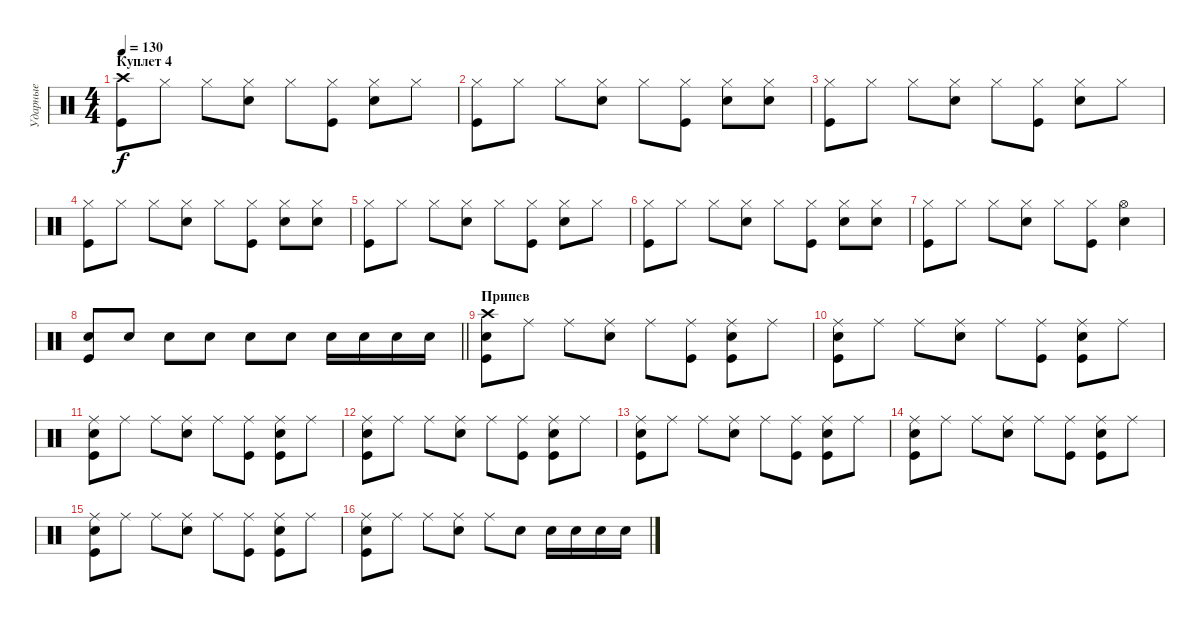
\track ("Ударные" "Ударные") {instrument percussion}
\staff {score}
\articulation defaults
\ts (4 4)
\section ("" "Куплет 4")
\tempo 130
\clef neutral
\ks c
("Crash high (hit)" "Kick (hit)").8{dy f} "Hi-Hat (closed)".8 "Hi-Hat (closed)".8 ("Hi-Hat (closed)" "Snare (hit) 2").8 "Hi-Hat (closed)".8 ("Hi-Hat (closed)" "Kick (hit)").8 ("Hi-Hat (closed)" "Snare (hit) 2").8 "Hi-Hat (closed)".8 |
("Hi-Hat (closed)" "Kick (hit)").8 "Hi-Hat (closed)".8 "Hi-Hat (closed)".8 ("Hi-Hat (closed)" "Snare (hit) 2").8 "Hi-Hat (closed)".8 ("Hi-Hat (closed)" "Kick (hit)").8 ("Hi-Hat (closed)" "Snare (hit) 2").8 ("Hi-Hat (closed)" "Snare (hit) 2").8 |
("Hi-Hat (closed)" "Kick (hit)").8 "Hi-Hat (closed)".8 "Hi-Hat (closed)".8 ("Hi-Hat (closed)" "Snare (hit) 2").8 "Hi-Hat (closed)".8 ("Hi-Hat (closed)" "Kick (hit)").8 ("Hi-Hat (closed)" "Snare (hit) 2").8 "Hi-Hat (closed)".8 |
("Hi-Hat (closed)" "Kick (hit)").8 "Hi-Hat (closed)".8 "Hi-Hat (closed)".8 ("Hi-Hat (closed)" "Snare (hit) 2").8 "Hi-Hat (closed)".8 ("Hi-Hat (closed)" "Kick (hit)").8 ("Hi-Hat (closed)" "Snare (hit) 2").8 ("Hi-Hat (closed)" "Snare (hit) 2").8 |
("Hi-Hat (closed)" "Kick (hit)").8 "Hi-Hat (closed)".8 "Hi-Hat (closed)".8 ("Hi-Hat (closed)" "Snare (hit) 2").8 "Hi-Hat (closed)".8 ("Hi-Hat (closed)" "Kick (hit)").8 ("Hi-Hat (closed)" "Snare (hit) 2").8 "Hi-Hat (closed)".8 |
("Hi-Hat (closed)" "Kick (hit)").8 "Hi-Hat (closed)".8 "Hi-Hat (closed)".8 ("Hi-Hat (closed)" "Snare (hit) 2").8 "Hi-Hat (closed)".8 ("Hi-Hat (closed)" "Kick (hit)").8 ("Hi-Hat (closed)" "Snare (hit) 2").8 ("Hi-Hat (closed)" "Snare (hit) 2").8 |
("Hi-Hat (closed)" "Kick (hit)").8 "Hi-Hat (closed)".8 "Hi-Hat (closed)".8 ("Hi-Hat (closed)" "Snare (hit) 2").8 "Hi-Hat (closed)".8 ("Hi-Hat (closed)" "Kick (hit)").8 ("Hi-Hat (open)" "Snare (hit) 2").4 |
\barLineRight lightlight
("Snare (hit) 2" "Kick (hit)").8 "Snare (hit) 2".8 "Snare (hit) 2".8 "Snare (hit) 2".8 "Snare (hit) 2".8 "Snare (hit) 2".8 "Snare (hit) 2".16 "Snare (hit) 2".16 "Snare (hit) 2".16 "Snare (hit) 2".16 |
\section ("" "Припев")
("Crash high (hit)" "Snare (hit) 2" "Kick (hit)").8 "Ride (middle)".8 "Ride (middle)".8 ("Ride (middle)" "Snare (hit) 2").8 "Ride (middle)".8 ("Ride (middle)" "Kick (hit)").8 ("Ride (middle)" "Snare (hit) 2" "Kick (hit)").8 "Ride (middle)".8 |
("Ride (middle)" "Snare (hit) 2" "Kick (hit)").8 "Ride (middle)".8 "Ride (middle)".8 ("Ride (middle)" "Snare (hit) 2").8 "Ride (middle)".8 ("Ride (middle)" "Kick (hit)").8 ("Ride (middle)" "Snare (hit) 2" "Kick (hit)").8 "Ride (middle)".8 |
("Ride (middle)" "Snare (hit) 2" "Kick (hit)").8 "Ride (middle)".8 "Ride (middle)".8 ("Ride (middle)" "Snare (hit) 2").8 "Ride (middle)".8 ("Ride (middle)" "Kick (hit)").8 ("Ride (middle)" "Snare (hit) 2" "Kick (hit)").8 "Ride (middle)".8 |
("Ride (middle)" "Snare (hit) 2" "Kick (hit)").8 "Ride (middle)".8 "Ride (middle)".8 ("Ride (middle)" "Snare (hit) 2").8 "Ride (middle)".8 ("Ride (middle)" "Kick (hit)").8 ("Ride (middle)" "Snare (hit) 2" "Kick (hit)").8 "Ride (middle)".8 |
("Ride (middle)" "Snare (hit) 2" "Kick (hit)").8 "Ride (middle)".8 "Ride (middle)".8 ("Ride (middle)" "Snare (hit) 2").8 "Ride (middle)".8 ("Ride (middle)" "Kick (hit)").8 ("Ride (middle)" "Snare (hit) 2" "Kick (hit)").8 "Ride (middle)".8 |
("Ride (middle)" "Snare (hit) 2" "Kick (hit)").8 "Ride (middle)".8 "Ride (middle)".8 ("Ride (middle)" "Snare (hit) 2").8 "Ride (middle)".8 ("Ride (middle)" "Kick (hit)").8 ("Ride (middle)" "Snare (hit) 2" "Kick (hit)").8 "Ride (middle)".8 |
("Ride (middle)" "Snare (hit) 2" "Kick (hit)").8 "Ride (middle)".8 "Ride (middle)".8 ("Ride (middle)" "Snare (hit) 2").8 "Ride (middle)".8 ("Ride (middle)" "Kick (hit)").8 ("Ride (middle)" "Snare (hit) 2" "Kick (hit)").8 "Ride (middle)".8 |
("Ride (middle)" "Snare (hit) 2" "Kick (hit)").8 "Ride (middle)".8 "Ride (middle)".8 ("Ride (middle)" "Snare (hit) 2").8 "Ride (middle)".8 "Snare (hit) 2".8 "Snare (hit) 2".16 "Snare (hit) 2".16 "Snare (hit) 2".16 "Snare (hit) 2".16
